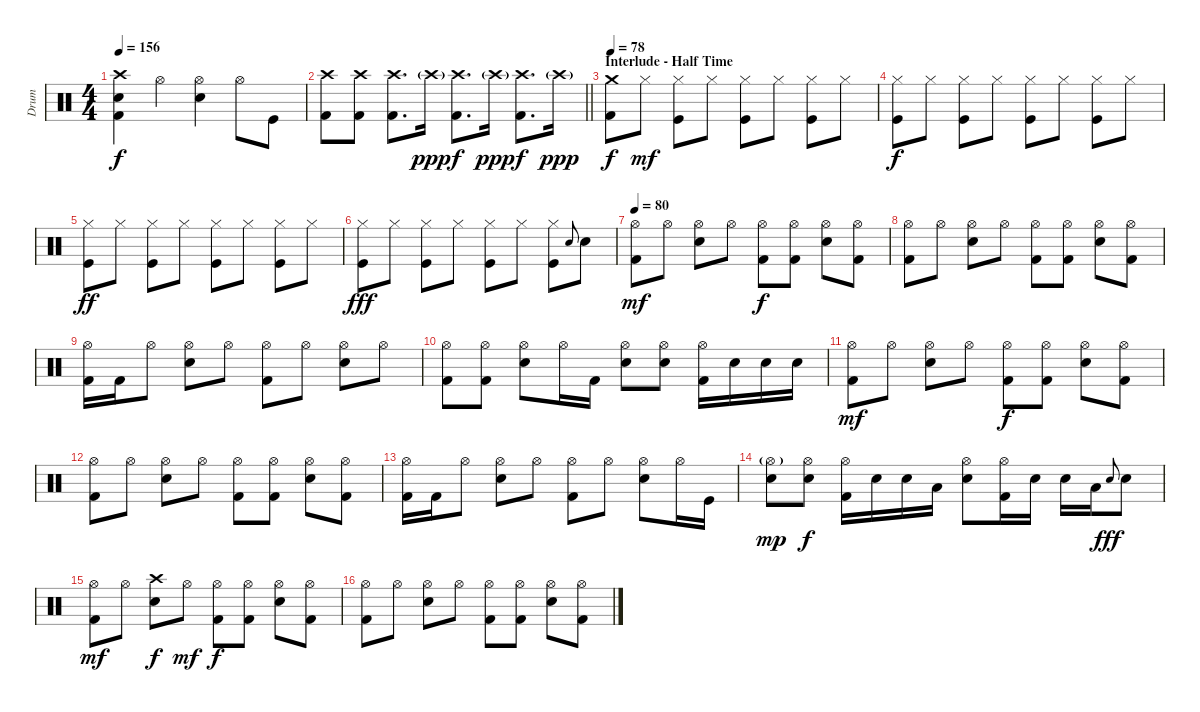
\track ("Drum" "Drum") {instrument percussion}
\staff {score}
\articulation defaults
\ts (4 4)
\tempo 156
\clef neutral
\ks c
("Crash high (hit)" "Electric Snare (hit)" "Kick (hit) 2").4{dy f} "Hi-Hat (open)".4 ("Hi-Hat (open)" "Electric Snare (hit)").4 "Hi-Hat (open)".8 "Kick (hit)".8 |
\barLineRight lightlight
("Crash high (hit)" "Kick (hit) 2").8 ("Crash high (hit)" "Kick (hit) 2").8 ("Crash high (hit)" "Kick (hit) 2").8{d} "Crash high (hit)"{g}.16{dy ppp} ("Crash high (hit)" "Kick (hit) 2").8{d dy f} "Crash high (hit)"{g}.16{dy ppp} ("Crash high (hit)" "Kick (hit) 2").8{d dy f} "Crash high (hit)"{g}.16{dy ppp} |
\section ("" "Interlude - Half Time")
\tempo 78
("Crash medium (hit)" "Kick (hit) 2").8{dy f} "Hi-Hat (closed)".8{dy mf} ("Hi-Hat (closed)" "Kick (hit)").8 "Hi-Hat (closed)".8 ("Hi-Hat (closed)" "Kick (hit)").8 "Hi-Hat (closed)".8 ("Hi-Hat (closed)" "Kick (hit)").8 "Hi-Hat (closed)".8 |
("Hi-Hat (closed)" "Kick (hit)").8{dy f} "Hi-Hat (closed)".8 ("Hi-Hat (closed)" "Kick (hit)").8 "Hi-Hat (closed)".8 ("Hi-Hat (closed)" "Kick (hit)").8 "Hi-Hat (closed)".8 ("Hi-Hat (closed)" "Kick (hit)").8 "Hi-Hat (closed)".8 |
("Hi-Hat (closed)" "Kick (hit)").8{dy ff} "Hi-Hat (closed)".8 ("Hi-Hat (closed)" "Kick (hit)").8 "Hi-Hat (closed)".8 ("Hi-Hat (closed)" "Kick (hit)").8 "Hi-Hat (closed)".8 ("Hi-Hat (closed)" "Kick (hit)").8 "Hi-Hat (closed)".8 |
("Hi-Hat (closed)" "Kick (hit)").8{dy fff} "Hi-Hat (closed)".8 ("Hi-Hat (closed)" "Kick (hit)").8 "Hi-Hat (closed)".8 ("Hi-Hat (closed)" "Kick (hit)").8 "Hi-Hat (closed)".8 ("Hi-Hat (closed)" "Kick (hit)").8 "Electric Snare (hit)".8{gr onbeat} "Snare (hit) 2".8 |
\tempo 80
("Hi-Hat (open)" "Kick (hit) 2").8{dy mf} "Hi-Hat (open)".8 ("Hi-Hat (open)" "Snare (hit) 2").8 "Hi-Hat (open)".8 ("Hi-Hat (open)" "Kick (hit) 2").8{dy f} ("Hi-Hat (open)" "Kick (hit) 2").8 ("Hi-Hat (open)" "Snare (hit) 2").8 ("Hi-Hat (open)" "Kick (hit) 2").8 |
("Hi-Hat (open)" "Kick (hit) 2").8 "Hi-Hat (open)".8 ("Hi-Hat (open)" "Snare (hit) 2").8 "Hi-Hat (open)".8 ("Hi-Hat (open)" "Kick (hit) 2").8 ("Hi-Hat (open)" "Kick (hit) 2").8 ("Hi-Hat (open)" "Snare (hit) 2").8 ("Hi-Hat (open)" "Kick (hit) 2").8 |
("Hi-Hat (open)" "Kick (hit) 2").16 "Kick (hit) 2".16 "Hi-Hat (open)".8 ("Hi-Hat (open)" "Snare (hit) 2").8 "Hi-Hat (open)".8 ("Hi-Hat (open)" "Kick (hit) 2").8 "Hi-Hat (open)".8 ("Hi-Hat (open)" "Snare (hit) 2").8 "Hi-Hat (open)".8 |
("Hi-Hat (open)" "Kick (hit) 2").8 ("Hi-Hat (open)" "Kick (hit) 2").8 ("Hi-Hat (open)" "Snare (hit) 2").8 "Hi-Hat (open)".16 "Kick (hit) 2".16 ("Hi-Hat (open)" "Snare (hit) 2").8 ("Hi-Hat (open)" "Snare (hit) 2").8 ("Hi-Hat (open)" "Kick (hit) 2").16 "Snare (hit) 2".16 "Snare (hit) 2".16 "Snare (hit) 2".16 |
("Hi-Hat (open)" "Kick (hit) 2").8{dy mf} "Hi-Hat (open)".8 ("Hi-Hat (open)" "Snare (hit) 2").8 "Hi-Hat (open)".8 ("Hi-Hat (open)" "Kick (hit) 2").8{dy f} ("Hi-Hat (open)" "Kick (hit) 2").8 ("Hi-Hat (open)" "Snare (hit) 2").8 ("Hi-Hat (open)" "Kick (hit) 2").8 |
("Hi-Hat (open)" "Kick (hit) 2").8 "Hi-Hat (open)".8 ("Hi-Hat (open)" "Snare (hit) 2").8 "Hi-Hat (open)".8 ("Hi-Hat (open)" "Kick (hit) 2").8 ("Hi-Hat (open)" "Kick (hit) 2").8 ("Hi-Hat (open)" "Snare (hit) 2").8 ("Hi-Hat (open)" "Kick (hit) 2").8 |
("Hi-Hat (open)" "Kick (hit) 2").16 "Kick (hit) 2".16 "Hi-Hat (open)".8 ("Hi-Hat (open)" "Snare (hit) 2").8 "Hi-Hat (open)".8 ("Hi-Hat (open)" "Kick (hit) 2").8 "Hi-Hat (open)".8 ("Hi-Hat (open)" "Snare (hit) 2").8 "Hi-Hat (open)".16 "Kick (hit)".16 |
("Hi-Hat (open)"{g} "Snare (hit) 2").8{dy mp} ("Hi-Hat (open)" "Snare (hit) 2").8{dy f} ("Hi-Hat (open)" "Kick (hit) 2").16 "Snare (hit) 2".16 "Snare (hit) 2".16 "Low Tom (hit)".16 ("Hi-Hat (open)" "Snare (hit) 2").8 ("Hi-Hat (open)" "Kick (hit) 2").16 "Snare (hit) 2".16 "Snare (hit) 2".16 "Low Tom (hit)".16 "Snare (hit) 2".8{gr onbeat dy fff} "Snare (hit) 2".8 |
("Hi-Hat (open)" "Kick (hit) 2").8{dy mf} "Hi-Hat (open)".8 ("Crash high (hit)" "Snare (hit) 2").8{dy f} "Hi-Hat (open)".8{dy mf} ("Hi-Hat (open)" "Kick (hit) 2").8{dy f} ("Hi-Hat (open)" "Kick (hit) 2").8 ("Hi-Hat (open)" "Snare (hit) 2").8 ("Hi-Hat (open)" "Kick (hit) 2").8 |
("Hi-Hat (open)" "Kick (hit) 2").8 "Hi-Hat (open)".8 ("Hi-Hat (open)" "Snare (hit) 2").8 "Hi-Hat (open)".8 ("Hi-Hat (open)" "Kick (hit) 2").8 ("Hi-Hat (open)" "Kick (hit) 2").8 ("Hi-Hat (open)" "Snare (hit) 2").8 ("Hi-Hat (open)" "Kick (hit) 2").8
